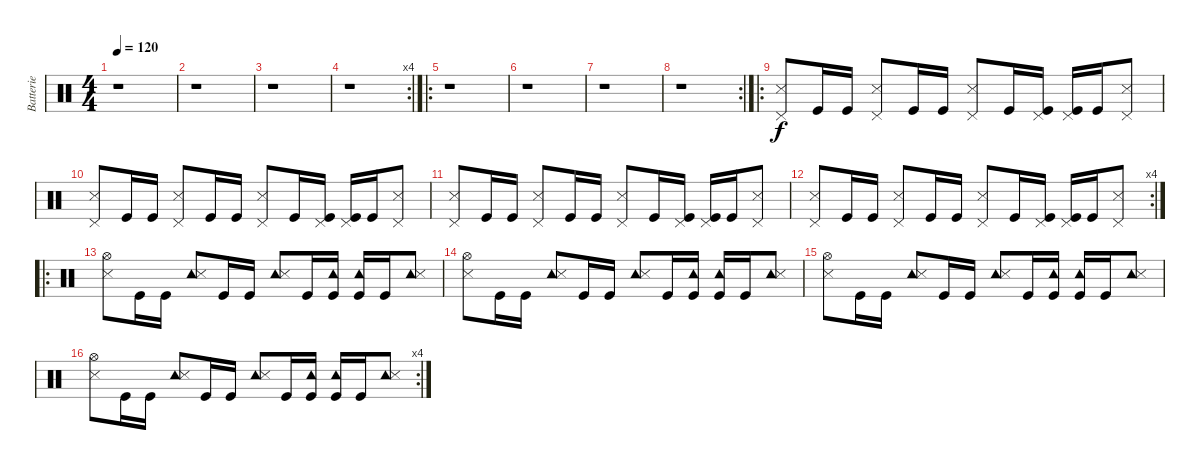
\track ("Batterie" "Batterie") {instrument percussion}
\staff {score}
\articulation defaults
\ts (4 4)
\tempo 120
\clef neutral
\ks c
r.1{dy f} |
r.1 |
r.1 |
\rc 4
r.1 |
\ro
r.1 |
r.1 |
r.1 |
\rc 2
r.1 |
\ro
("Pedal Hi-Hat (hit)" "Metronome (hit)").8 "Kick (hit)".16 "Kick (hit)".16 ("Pedal Hi-Hat (hit)" "Metronome (hit)").8 "Kick (hit)".16 "Kick (hit)".16 ("Pedal Hi-Hat (hit)" "Metronome (hit)").8 "Kick (hit)".16 ("Pedal Hi-Hat (hit)" "Kick (hit)").16 ("Pedal Hi-Hat (hit)" "Kick (hit)").16 "Kick (hit)".16 ("Pedal Hi-Hat (hit)" "Metronome (hit)").8 |
("Pedal Hi-Hat (hit)" "Metronome (hit)").8 "Kick (hit)".16 "Kick (hit)".16 ("Pedal Hi-Hat (hit)" "Metronome (hit)").8 "Kick (hit)".16 "Kick (hit)".16 ("Pedal Hi-Hat (hit)" "Metronome (hit)").8 "Kick (hit)".16 ("Pedal Hi-Hat (hit)" "Kick (hit)").16 ("Pedal Hi-Hat (hit)" "Kick (hit)").16 "Kick (hit)".16 ("Pedal Hi-Hat (hit)" "Metronome (hit)").8 |
("Pedal Hi-Hat (hit)" "Metronome (hit)").8 "Kick (hit)".16 "Kick (hit)".16 ("Pedal Hi-Hat (hit)" "Metronome (hit)").8 "Kick (hit)".16 "Kick (hit)".16 ("Pedal Hi-Hat (hit)" "Metronome (hit)").8 "Kick (hit)".16 ("Pedal Hi-Hat (hit)" "Kick (hit)").16 ("Pedal Hi-Hat (hit)" "Kick (hit)").16 "Kick (hit)".16 ("Pedal Hi-Hat (hit)" "Metronome (hit)").8 |
\rc 4
("Pedal Hi-Hat (hit)" "Metronome (hit)").8 "Kick (hit)".16 "Kick (hit)".16 ("Pedal Hi-Hat (hit)" "Metronome (hit)").8 "Kick (hit)".16 "Kick (hit)".16 ("Pedal Hi-Hat (hit)" "Metronome (hit)").8 "Kick (hit)".16 ("Pedal Hi-Hat (hit)" "Kick (hit)").16 ("Pedal Hi-Hat (hit)" "Kick (hit)").16 "Kick (hit)".16 ("Pedal Hi-Hat (hit)" "Metronome (hit)").8 |
\ro
("Hi-Hat (open)" "Metronome (hit)").8 "Kick (hit)".16 "Kick (hit)".16 ("Tambourine (hit)" "Metronome (hit)").8 "Kick (hit)".16 "Kick (hit)".16 ("Tambourine (hit)" "Metronome (hit)").8 "Kick (hit)".16 ("Tambourine (hit)" "Kick (hit)").16 ("Tambourine (hit)" "Kick (hit)").16 "Kick (hit)".16 ("Tambourine (hit)" "Metronome (hit)").8 |
("Hi-Hat (open)" "Metronome (hit)").8 "Kick (hit)".16 "Kick (hit)".16 ("Tambourine (hit)" "Metronome (hit)").8 "Kick (hit)".16 "Kick (hit)".16 ("Tambourine (hit)" "Metronome (hit)").8 "Kick (hit)".16 ("Tambourine (hit)" "Kick (hit)").16 ("Tambourine (hit)" "Kick (hit)").16 "Kick (hit)".16 ("Tambourine (hit)" "Metronome (hit)").8 |
("Hi-Hat (open)" "Metronome (hit)").8 "Kick (hit)".16 "Kick (hit)".16 ("Tambourine (hit)" "Metronome (hit)").8 "Kick (hit)".16 "Kick (hit)".16 ("Tambourine (hit)" "Metronome (hit)").8 "Kick (hit)".16 ("Tambourine (hit)" "Kick (hit)").16 ("Tambourine (hit)" "Kick (hit)").16 "Kick (hit)".16 ("Tambourine (hit)" "Metronome (hit)").8 |
\rc 4
("Hi-Hat (open)" "Metronome (hit)").8 "Kick (hit)".16 "Kick (hit)".16 ("Tambourine (hit)" "Metronome (hit)").8 "Kick (hit)".16 "Kick (hit)".16 ("Tambourine (hit)" "Metronome (hit)").8 "Kick (hit)".16 ("Tambourine (hit)" "Kick (hit)").16 ("Tambourine (hit)" "Kick (hit)").16 "Kick (hit)".16 ("Tambourine (hit)" "Metronome (hit)").8
